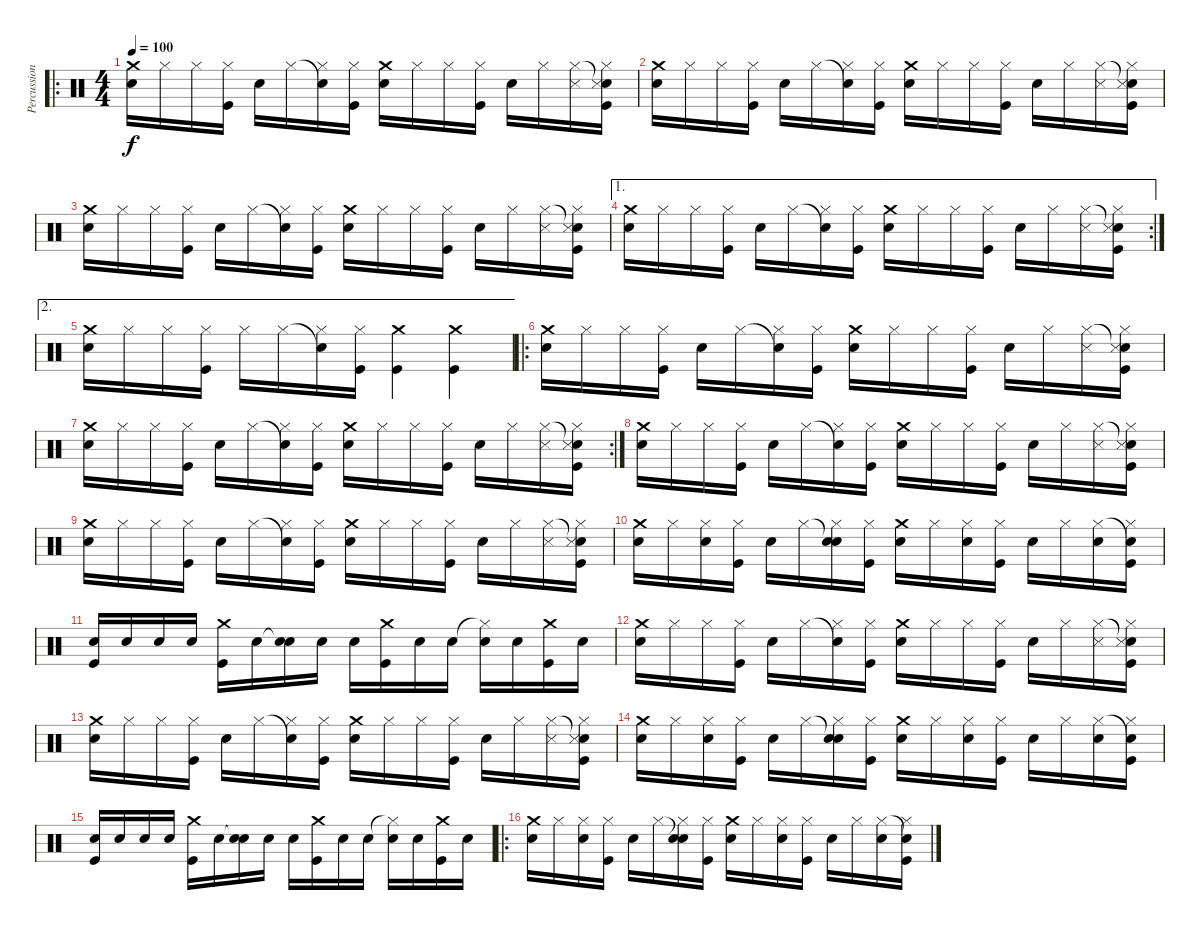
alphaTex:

\track ("Percussion" "Percussion") {instrument percussion}
\staff {score}
\articulation defaults
\ro
\ts (4 4)
\tempo 100
\clef neutral
\ks c
("Crash medium (hit)" "Electric Snare (hit)").16{dy f} "Hi-Hat (closed)".16 "Hi-Hat (closed)".16 ("Hi-Hat (closed)" "Kick (hit)").16 "Electric Snare (hit)".16 "Hi-Hat (closed)".16 ("Snare (hit)"{t} "Hi-Hat (closed)").16 ("Hi-Hat (closed)" "Kick (hit)").16 ("Crash medium (hit)" "Electric Snare (hit)").16 "Hi-Hat (closed)".16 "Hi-Hat (closed)".16 ("Hi-Hat (closed)" "Kick (hit)").16 "Electric Snare (hit)".16 "Hi-Hat (closed)".16 ("Hi-Hat (closed)" "Snare (side stick) 3").16 ("Snare (hit)"{t} "Hi-Hat (closed)" "Snare (side stick) 3" "Kick (hit)").16 |
("Crash medium (hit)" "Electric Snare (hit)").16 "Hi-Hat (closed)".16 "Hi-Hat (closed)".16 ("Hi-Hat (closed)" "Kick (hit)").16 "Electric Snare (hit)".16 "Hi-Hat (closed)".16 ("Snare (hit)"{t} "Hi-Hat (closed)").16 ("Hi-Hat (closed)" "Kick (hit)").16 ("Crash medium (hit)" "Electric Snare (hit)").16 "Hi-Hat (closed)".16 "Hi-Hat (closed)".16 ("Hi-Hat (closed)" "Kick (hit)").16 "Electric Snare (hit)".16 "Hi-Hat (closed)".16 ("Hi-Hat (closed)" "Snare (side stick) 3").16 ("Snare (hit)"{t} "Hi-Hat (closed)" "Snare (side stick) 3" "Kick (hit)").16 |
("Crash medium (hit)" "Electric Snare (hit)").16 "Hi-Hat (closed)".16 "Hi-Hat (closed)".16 ("Hi-Hat (closed)" "Kick (hit)").16 "Electric Snare (hit)".16 "Hi-Hat (closed)".16 ("Snare (hit)"{t} "Hi-Hat (closed)").16 ("Hi-Hat (closed)" "Kick (hit)").16 ("Crash medium (hit)" "Electric Snare (hit)").16 "Hi-Hat (closed)".16 "Hi-Hat (closed)".16 ("Hi-Hat (closed)" "Kick (hit)").16 "Electric Snare (hit)".16 "Hi-Hat (closed)".16 ("Hi-Hat (closed)" "Snare (side stick) 3").16 ("Snare (hit)"{t} "Hi-Hat (closed)" "Snare (side stick) 3" "Kick (hit)").16 |
\ae 1
\rc 2
("Crash medium (hit)" "Electric Snare (hit)").16 "Hi-Hat (closed)".16 "Hi-Hat (closed)".16 ("Hi-Hat (closed)" "Kick (hit)").16 "Electric Snare (hit)".16 "Hi-Hat (closed)".16 ("Snare (hit)"{t} "Hi-Hat (closed)").16 ("Hi-Hat (closed)" "Kick (hit)").16 ("Crash medium (hit)" "Electric Snare (hit)").16 "Hi-Hat (closed)".16 "Hi-Hat (closed)".16 ("Hi-Hat (closed)" "Kick (hit)").16 "Electric Snare (hit)".16 "Hi-Hat (closed)".16 ("Hi-Hat (closed)" "Snare (side stick) 3").16 ("Snare (hit)"{t} "Hi-Hat (closed)" "Snare (side stick) 3" "Kick (hit)").16 |
\ae 2
("Crash medium (hit)" "Electric Snare (hit)").16 "Hi-Hat (closed)".16 "Hi-Hat (closed)".16 ("Hi-Hat (closed)" "Kick (hit)").16 "Hi-Hat (closed)".16 "Hi-Hat (closed)".16 ("Snare (hit)"{t} "Hi-Hat (closed)").16 ("Hi-Hat (closed)" "Kick (hit)").16 ("Crash medium (hit)" "Kick (hit)").4 ("Crash medium (hit)" "Kick (hit)").4 |
\ro
("Crash medium (hit)" "Electric Snare (hit)").16 "Hi-Hat (closed)".16 "Hi-Hat (closed)".16 ("Hi-Hat (closed)" "Kick (hit)").16 "Electric Snare (hit)".16 "Hi-Hat (closed)".16 ("Snare (hit)"{t} "Hi-Hat (closed)").16 ("Hi-Hat (closed)" "Kick (hit)").16 ("Crash medium (hit)" "Electric Snare (hit)").16 "Hi-Hat (closed)".16 "Hi-Hat (closed)".16 ("Hi-Hat (closed)" "Kick (hit)").16 "Electric Snare (hit)".16 "Hi-Hat (closed)".16 ("Hi-Hat (closed)" "Snare (side stick) 3").16 ("Snare (hit)"{t} "Hi-Hat (closed)" "Snare (side stick) 3" "Kick (hit)").16 |
\rc 2
("Crash medium (hit)" "Electric Snare (hit)").16 "Hi-Hat (closed)".16 "Hi-Hat (closed)".16 ("Hi-Hat (closed)" "Kick (hit)").16 "Electric Snare (hit)".16 "Hi-Hat (closed)".16 ("Snare (hit)"{t} "Hi-Hat (closed)").16 ("Hi-Hat (closed)" "Kick (hit)").16 ("Crash medium (hit)" "Electric Snare (hit)").16 "Hi-Hat (closed)".16 "Hi-Hat (closed)".16 ("Hi-Hat (closed)" "Kick (hit)").16 "Electric Snare (hit)".16 "Hi-Hat (closed)".16 ("Hi-Hat (closed)" "Snare (side stick) 3").16 ("Snare (hit)"{t} "Hi-Hat (closed)" "Snare (side stick) 3" "Kick (hit)").16 |
("Crash medium (hit)" "Electric Snare (hit)").16 "Hi-Hat (closed)".16 "Hi-Hat (closed)".16 ("Hi-Hat (closed)" "Kick (hit)").16 "Electric Snare (hit)".16 "Hi-Hat (closed)".16 ("Snare (hit)"{t} "Hi-Hat (closed)").16 ("Hi-Hat (closed)" "Kick (hit)").16 ("Crash medium (hit)" "Electric Snare (hit)").16 "Hi-Hat (closed)".16 "Hi-Hat (closed)".16 ("Hi-Hat (closed)" "Kick (hit)").16 "Electric Snare (hit)".16 "Hi-Hat (closed)".16 ("Hi-Hat (closed)" "Snare (side stick) 3").16 ("Snare (hit)"{t} "Hi-Hat (closed)" "Snare (side stick) 3" "Kick (hit)").16 |
("Crash medium (hit)" "Electric Snare (hit)").16 "Hi-Hat (closed)".16 "Hi-Hat (closed)".16 ("Hi-Hat (closed)" "Kick (hit)").16 "Electric Snare (hit)".16 "Hi-Hat (closed)".16 ("Snare (hit)"{t} "Hi-Hat (closed)").16 ("Hi-Hat (closed)" "Kick (hit)").16 ("Crash medium (hit)" "Electric Snare (hit)").16 "Hi-Hat (closed)".16 "Hi-Hat (closed)".16 ("Hi-Hat (closed)" "Kick (hit)").16 "Electric Snare (hit)".16 "Hi-Hat (closed)".16 ("Hi-Hat (closed)" "Snare (side stick) 3").16 ("Snare (hit)"{t} "Hi-Hat (closed)" "Snare (side stick) 3" "Kick (hit)").16 |
("Crash medium (hit)" "Electric Snare (hit)").16 "Hi-Hat (closed)".16 ("Hi-Hat (closed)" "Electric Snare (hit)").16 ("Hi-Hat (closed)" "Kick (hit)").16 "Electric Snare (hit)".16 "Hi-Hat (closed)".16 ("Snare (hit)"{t} "Hi-Hat (closed)" "Electric Snare (hit)").16 ("Hi-Hat (closed)" "Kick (hit)").16 ("Crash medium (hit)" "Electric Snare (hit)").16 "Hi-Hat (closed)".16 ("Hi-Hat (closed)" "Electric Snare (hit)").16 ("Hi-Hat (closed)" "Kick (hit)").16 "Electric Snare (hit)".16 "Hi-Hat (closed)".16 ("Hi-Hat (closed)" "Electric Snare (hit)").16 ("Snare (hit)"{t} "Hi-Hat (closed)" "Kick (hit)").16 |
("Electric Snare (hit)" "Kick (hit)").16 "Electric Snare (hit)".16 "Electric Snare (hit)".16 "Electric Snare (hit)".16 ("Crash medium (hit)" "Kick (hit)").16 "Electric Snare (hit)".16 ("Snare (hit)"{t} "Electric Snare (hit)").16 "Electric Snare (hit)".16 "Electric Snare (hit)".16 ("Crash medium (hit)" "Kick (hit)").16 "Electric Snare (hit)".16 "Electric Snare (hit)".16 ("Hi-Hat (closed)"{t} "Electric Snare (hit)").16 "Electric Snare (hit)".16 ("Crash medium (hit)" "Kick (hit)").16 "Electric Snare (hit)".16 |
("Crash medium (hit)" "Electric Snare (hit)").16 "Hi-Hat (closed)".16 "Hi-Hat (closed)".16 ("Hi-Hat (closed)" "Kick (hit)").16 "Electric Snare (hit)".16 "Hi-Hat (closed)".16 ("Snare (hit)"{t} "Hi-Hat (closed)").16 ("Hi-Hat (closed)" "Kick (hit)").16 ("Crash medium (hit)" "Electric Snare (hit)").16 "Hi-Hat (closed)".16 "Hi-Hat (closed)".16 ("Hi-Hat (closed)" "Kick (hit)").16 "Electric Snare (hit)".16 "Hi-Hat (closed)".16 ("Hi-Hat (closed)" "Snare (side stick) 3").16 ("Snare (hit)"{t} "Hi-Hat (closed)" "Snare (side stick) 3" "Kick (hit)").16 |
("Crash medium (hit)" "Electric Snare (hit)").16 "Hi-Hat (closed)".16 "Hi-Hat (closed)".16 ("Hi-Hat (closed)" "Kick (hit)").16 "Electric Snare (hit)".16 "Hi-Hat (closed)".16 ("Snare (hit)"{t} "Hi-Hat (closed)").16 ("Hi-Hat (closed)" "Kick (hit)").16 ("Crash medium (hit)" "Electric Snare (hit)").16 "Hi-Hat (closed)".16 "Hi-Hat (closed)".16 ("Hi-Hat (closed)" "Kick (hit)").16 "Electric Snare (hit)".16 "Hi-Hat (closed)".16 ("Hi-Hat (closed)" "Snare (side stick) 3").16 ("Snare (hit)"{t} "Hi-Hat (closed)" "Snare (side stick) 3" "Kick (hit)").16 |
("Crash medium (hit)" "Electric Snare (hit)").16 "Hi-Hat (closed)".16 ("Hi-Hat (closed)" "Electric Snare (hit)").16 ("Hi-Hat (closed)" "Kick (hit)").16 "Electric Snare (hit)".16 "Hi-Hat (closed)".16 ("Snare (hit)"{t} "Hi-Hat (closed)" "Electric Snare (hit)").16 ("Hi-Hat (closed)" "Kick (hit)").16 ("Crash medium (hit)" "Electric Snare (hit)").16 "Hi-Hat (closed)".16 ("Hi-Hat (closed)" "Electric Snare (hit)").16 ("Hi-Hat (closed)" "Kick (hit)").16 "Electric Snare (hit)".16 "Hi-Hat (closed)".16 ("Hi-Hat (closed)" "Electric Snare (hit)").16 ("Snare (hit)"{t} "Hi-Hat (closed)" "Kick (hit)").16 |
("Electric Snare (hit)" "Kick (hit)").16 "Electric Snare (hit)".16 "Electric Snare (hit)".16 "Electric Snare (hit)".16 ("Crash medium (hit)" "Kick (hit)").16 "Electric Snare (hit)".16 ("Snare (hit)"{t} "Electric Snare (hit)").16 "Electric Snare (hit)".16 "Electric Snare (hit)".16 ("Crash medium (hit)" "Kick (hit)").16 "Electric Snare (hit)".16 "Electric Snare (hit)".16 ("Hi-Hat (closed)"{t} "Electric Snare (hit)").16 "Electric Snare (hit)".16 ("Crash medium (hit)" "Kick (hit)").16 "Electric Snare (hit)".16 |
\ro
("Crash medium (hit)" "Electric Snare (hit)").16 "Hi-Hat (closed)".16 ("Hi-Hat (closed)" "Electric Snare (hit)").16 ("Hi-Hat (closed)" "Kick (hit)").16 "Electric Snare (hit)".16 "Hi-Hat (closed)".16 ("Snare (hit)"{t} "Hi-Hat (closed)" "Electric Snare (hit)").16 ("Hi-Hat (closed)" "Kick (hit)").16 ("Crash medium (hit)" "Electric Snare (hit)").16 "Hi-Hat (closed)".16 ("Hi-Hat (closed)" "Electric Snare (hit)").16 ("Hi-Hat (closed)" "Kick (hit)").16 "Electric Snare (hit)".16 "Hi-Hat (closed)".16 ("Hi-Hat (closed)" "Electric Snare (hit)").16 ("Snare (hit)"{t} "Hi-Hat (closed)" "Kick (hit)").16
